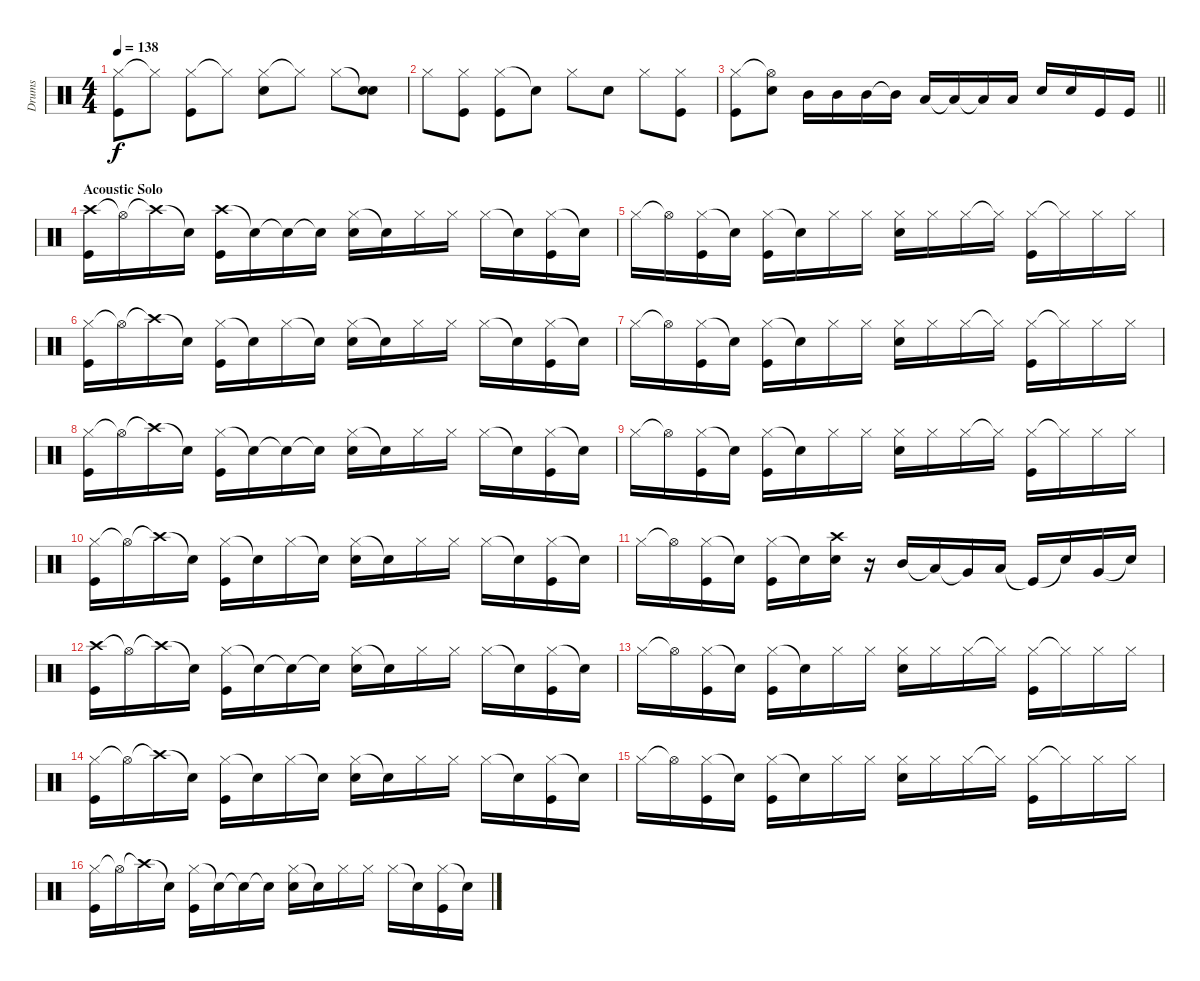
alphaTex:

\track ("Drums" "Drums") {instrument percussion}
\staff {score}
\articulation defaults
\ts (4 4)
\tempo 138
\clef neutral
\ks c
("Hi-Hat (closed)" "Kick (hit)").8{dy f} "Hi-Hat (closed)"{t}.8 ("Hi-Hat (closed)" "Kick (hit)").8 "Hi-Hat (closed)"{t}.8 ("Hi-Hat (closed)" "Electric Snare (hit)").8 "Hi-Hat (closed)"{t}.8 "Hi-Hat (closed)".8 ("Snare (hit)"{t} "Electric Snare (hit)").8 |
"Hi-Hat (closed)".8 ("Hi-Hat (closed)" "Kick (hit)").8 ("Hi-Hat (closed)" "Kick (hit)").8 "Snare (hit)"{t}.8 "Hi-Hat (closed)".8 "Electric Snare (hit)".8 "Hi-Hat (closed)".8 ("Hi-Hat (closed)" "Kick (hit)").8 |
\barLineRight lightlight
("Hi-Hat (closed)" "Kick (hit)").8 ("Hi-Hat (open)"{t} "Electric Snare (hit)").8 "Mid Tom (hit)".16 "Mid Tom (hit)".16 "Mid Tom (hit)".16 "Mid Tom (hit)"{t}.16 "Low Tom (hit)".16 "Low Tom (hit)"{t}.16 "Low Tom (hit)"{t}.16 "Low Tom (hit)".16 "Electric Snare (hit)".16 "Electric Snare (hit)".16 "Kick (hit)".16 "Kick (hit)".16 |
\section ("" "Acoustic Solo")
("Crash high (hit)" "Kick (hit)").16 "Hi-Hat (open)"{t}.16 "Crash high (hit)"{t}.16 "Snare (hit)"{t}.16 ("Crash high (hit)" "Kick (hit)").16 "Snare (hit)"{t}.16 "Snare (hit)"{t}.16 "Snare (hit)"{t}.16 ("Hi-Hat (closed)" "Electric Snare (hit)").16 "Snare (hit)"{t}.16 "Hi-Hat (closed)".16 "Hi-Hat (closed)".16 "Hi-Hat (closed)".16 "Snare (hit)"{t}.16 ("Hi-Hat (closed)" "Kick (hit)").16 "Snare (hit)"{t}.16 |
"Hi-Hat (closed)".16 "Hi-Hat (open)"{t}.16 ("Hi-Hat (closed)" "Kick (hit)").16 "Snare (hit)"{t}.16 ("Hi-Hat (closed)" "Kick (hit)").16 "Snare (hit)"{t}.16 "Hi-Hat (closed)".16 "Hi-Hat (closed)".16 ("Hi-Hat (closed)" "Electric Snare (hit)").16 "Hi-Hat (closed)".16 "Hi-Hat (closed)".16 "Hi-Hat (closed)"{t}.16 ("Hi-Hat (closed)" "Kick (hit)").16 "Hi-Hat (closed)"{t}.16 "Hi-Hat (closed)".16 "Hi-Hat (closed)".16 |
("Hi-Hat (closed)" "Kick (hit)").16 "Hi-Hat (open)"{t}.16 "Crash high (hit)"{t}.16 "Snare (hit)"{t}.16 ("Hi-Hat (closed)" "Kick (hit)").16 "Snare (hit)"{t}.16 "Hi-Hat (closed)".16 "Snare (hit)"{t}.16 ("Hi-Hat (closed)" "Electric Snare (hit)").16 "Snare (hit)"{t}.16 "Hi-Hat (closed)".16 "Hi-Hat (closed)".16 "Hi-Hat (closed)".16 "Snare (hit)"{t}.16 ("Hi-Hat (closed)" "Kick (hit)").16 "Snare (hit)"{t}.16 |
"Hi-Hat (closed)".16 "Hi-Hat (open)"{t}.16 ("Hi-Hat (closed)" "Kick (hit)").16 "Snare (hit)"{t}.16 ("Hi-Hat (closed)" "Kick (hit)").16 "Snare (hit)"{t}.16 "Hi-Hat (closed)".16 "Hi-Hat (closed)".16 ("Hi-Hat (closed)" "Electric Snare (hit)").16 "Hi-Hat (closed)".16 "Hi-Hat (closed)".16 "Hi-Hat (closed)"{t}.16 ("Hi-Hat (closed)" "Kick (hit)").16 "Hi-Hat (closed)"{t}.16 "Hi-Hat (closed)".16 "Hi-Hat (closed)".16 |
("Hi-Hat (closed)" "Kick (hit)").16 "Hi-Hat (open)"{t}.16 "Crash high (hit)"{t}.16 "Snare (hit)"{t}.16 ("Hi-Hat (closed)" "Kick (hit)").16 "Snare (hit)"{t}.16 "Snare (hit)"{t}.16 "Snare (hit)"{t}.16 ("Hi-Hat (closed)" "Electric Snare (hit)").16 "Snare (hit)"{t}.16 "Hi-Hat (closed)".16 "Hi-Hat (closed)".16 "Hi-Hat (closed)".16 "Snare (hit)"{t}.16 ("Hi-Hat (closed)" "Kick (hit)").16 "Snare (hit)"{t}.16 |
"Hi-Hat (closed)".16 "Hi-Hat (open)"{t}.16 ("Hi-Hat (closed)" "Kick (hit)").16 "Snare (hit)"{t}.16 ("Hi-Hat (closed)" "Kick (hit)").16 "Snare (hit)"{t}.16 "Hi-Hat (closed)".16 "Hi-Hat (closed)".16 ("Hi-Hat (closed)" "Electric Snare (hit)").16 "Hi-Hat (closed)".16 "Hi-Hat (closed)".16 "Hi-Hat (closed)"{t}.16 ("Hi-Hat (closed)" "Kick (hit)").16 "Hi-Hat (closed)"{t}.16 "Hi-Hat (closed)".16 "Hi-Hat (closed)".16 |
("Hi-Hat (closed)" "Kick (hit)").16 "Hi-Hat (open)"{t}.16 "Crash high (hit)"{t}.16 "Snare (hit)"{t}.16 ("Hi-Hat (closed)" "Kick (hit)").16 "Snare (hit)"{t}.16 "Hi-Hat (closed)".16 "Snare (hit)"{t}.16 ("Hi-Hat (closed)" "Electric Snare (hit)").16 "Snare (hit)"{t}.16 "Hi-Hat (closed)".16 "Hi-Hat (closed)".16 "Hi-Hat (closed)".16 "Snare (hit)"{t}.16 ("Hi-Hat (closed)" "Kick (hit)").16 "Snare (hit)"{t}.16 |
"Hi-Hat (closed)".16 "Hi-Hat (open)"{t}.16 ("Hi-Hat (closed)" "Kick (hit)").16 "Snare (hit)"{t}.16 ("Hi-Hat (closed)" "Kick (hit)").16 "Snare (hit)"{t}.16 ("Crash high (hit)" "Electric Snare (hit)").16 r.16 "Mid Tom (hit)".16 "Low Tom (hit)"{t}.16 "Very Low Tom (hit)"{t}.16 "Low Tom (hit)".16 "Kick (hit)"{t}.16 "Snare (hit)"{t}.16 "Very Low Tom (hit)".16 "Snare (hit)"{t}.16 |
("Crash high (hit)" "Kick (hit)").16 "Hi-Hat (open)"{t}.16 "Crash high (hit)"{t}.16 "Snare (hit)"{t}.16 ("Hi-Hat (closed)" "Kick (hit)").16 "Snare (hit)"{t}.16 "Snare (hit)"{t}.16 "Snare (hit)"{t}.16 ("Hi-Hat (closed)" "Electric Snare (hit)").16 "Snare (hit)"{t}.16 "Hi-Hat (closed)".16 "Hi-Hat (closed)".16 "Hi-Hat (closed)".16 "Snare (hit)"{t}.16 ("Hi-Hat (closed)" "Kick (hit)").16 "Snare (hit)"{t}.16 |
"Hi-Hat (closed)".16 "Hi-Hat (open)"{t}.16 ("Hi-Hat (closed)" "Kick (hit)").16 "Snare (hit)"{t}.16 ("Hi-Hat (closed)" "Kick (hit)").16 "Snare (hit)"{t}.16 "Hi-Hat (closed)".16 "Hi-Hat (closed)".16 ("Hi-Hat (closed)" "Electric Snare (hit)").16 "Hi-Hat (closed)".16 "Hi-Hat (closed)".16 "Hi-Hat (closed)"{t}.16 ("Hi-Hat (closed)" "Kick (hit)").16 "Hi-Hat (closed)"{t}.16 "Hi-Hat (closed)".16 "Hi-Hat (closed)".16 |
("Hi-Hat (closed)" "Kick (hit)").16 "Hi-Hat (open)"{t}.16 "Crash high (hit)"{t}.16 "Snare (hit)"{t}.16 ("Hi-Hat (closed)" "Kick (hit)").16 "Snare (hit)"{t}.16 "Hi-Hat (closed)".16 "Snare (hit)"{t}.16 ("Hi-Hat (closed)" "Electric Snare (hit)").16 "Snare (hit)"{t}.16 "Hi-Hat (closed)".16 "Hi-Hat (closed)".16 "Hi-Hat (closed)".16 "Snare (hit)"{t}.16 ("Hi-Hat (closed)" "Kick (hit)").16 "Snare (hit)"{t}.16 |
"Hi-Hat (closed)".16 "Hi-Hat (open)"{t}.16 ("Hi-Hat (closed)" "Kick (hit)").16 "Snare (hit)"{t}.16 ("Hi-Hat (closed)" "Kick (hit)").16 "Snare (hit)"{t}.16 "Hi-Hat (closed)".16 "Hi-Hat (closed)".16 ("Hi-Hat (closed)" "Electric Snare (hit)").16 "Hi-Hat (closed)".16 "Hi-Hat (closed)".16 "Hi-Hat (closed)"{t}.16 ("Hi-Hat (closed)" "Kick (hit)").16 "Hi-Hat (closed)"{t}.16 "Hi-Hat (closed)".16 "Hi-Hat (closed)".16 |
("Hi-Hat (closed)" "Kick (hit)").16 "Hi-Hat (open)"{t}.16 "Crash high (hit)"{t}.16 "Snare (hit)"{t}.16 ("Hi-Hat (closed)" "Kick (hit)").16 "Snare (hit)"{t}.16 "Snare (hit)"{t}.16 "Snare (hit)"{t}.16 ("Hi-Hat (closed)" "Electric Snare (hit)").16 "Snare (hit)"{t}.16 "Hi-Hat (closed)".16 "Hi-Hat (closed)".16 "Hi-Hat (closed)".16 "Snare (hit)"{t}.16 ("Hi-Hat (closed)" "Kick (hit)").16 "Snare (hit)"{t}.16
